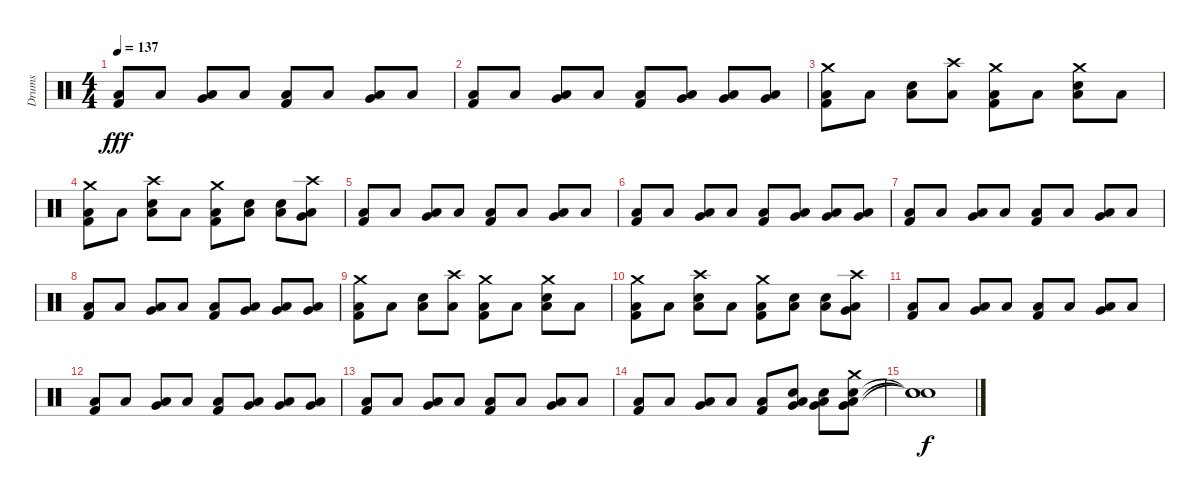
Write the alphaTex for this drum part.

\track ("Drums" "Drums") {instrument percussion}
\staff {score}
\articulation defaults
\ts (4 4)
\tempo 137
\clef neutral
\ks c
("Low Floor Tom (hit)" "Kick (hit) 2").8{dy fff} "Low Floor Tom (hit)".8 ("Very Low Tom (hit)" "Low Floor Tom (hit)").8 "Low Floor Tom (hit)".8 ("Low Floor Tom (hit)" "Kick (hit) 2").8 "Low Floor Tom (hit)".8 ("Very Low Tom (hit)" "Low Floor Tom (hit)").8 "Low Floor Tom (hit)".8 |
("Low Floor Tom (hit)" "Kick (hit) 2").8 "Low Floor Tom (hit)".8 ("Very Low Tom (hit)" "Low Floor Tom (hit)").8 "Low Floor Tom (hit)".8 ("Low Floor Tom (hit)" "Kick (hit) 2").8 ("Very Low Tom (hit)" "Low Floor Tom (hit)").8 ("Very Low Tom (hit)" "Low Floor Tom (hit)").8 ("Very Low Tom (hit)" "Low Floor Tom (hit)").8 |
("Crash medium (hit)" "Low Floor Tom (hit)" "Kick (hit) 2").8 "Low Floor Tom (hit)".8 ("Electric Snare (hit)" "Low Floor Tom (hit)").8 ("Low Floor Tom (hit)" "Crash high (hit)").8 ("Crash medium (hit)" "Low Floor Tom (hit)" "Kick (hit) 2").8 "Low Floor Tom (hit)".8 ("Electric Snare (hit)" "Low Floor Tom (hit)" "Crash medium (hit)").8 "Low Floor Tom (hit)".8 |
("Crash medium (hit)" "Low Floor Tom (hit)" "Kick (hit) 2").8 "Low Floor Tom (hit)".8 ("Electric Snare (hit)" "Low Floor Tom (hit)" "Crash high (hit)").8 "Low Floor Tom (hit)".8 ("Crash medium (hit)" "Low Floor Tom (hit)" "Kick (hit) 2").8 ("Electric Snare (hit)" "Low Floor Tom (hit)").8 ("Electric Snare (hit)" "Low Floor Tom (hit)").8 ("Very Low Tom (hit)" "Low Floor Tom (hit)" "Crash high (hit)").8 |
("Low Floor Tom (hit)" "Kick (hit) 2").8 "Low Floor Tom (hit)".8 ("Very Low Tom (hit)" "Low Floor Tom (hit)").8 "Low Floor Tom (hit)".8 ("Low Floor Tom (hit)" "Kick (hit) 2").8 "Low Floor Tom (hit)".8 ("Very Low Tom (hit)" "Low Floor Tom (hit)").8 "Low Floor Tom (hit)".8 |
("Low Floor Tom (hit)" "Kick (hit) 2").8 "Low Floor Tom (hit)".8 ("Very Low Tom (hit)" "Low Floor Tom (hit)").8 "Low Floor Tom (hit)".8 ("Low Floor Tom (hit)" "Kick (hit) 2").8 ("Very Low Tom (hit)" "Low Floor Tom (hit)").8 ("Very Low Tom (hit)" "Low Floor Tom (hit)").8 ("Very Low Tom (hit)" "Low Floor Tom (hit)").8 |
("Low Floor Tom (hit)" "Kick (hit) 2").8 "Low Floor Tom (hit)".8 ("Very Low Tom (hit)" "Low Floor Tom (hit)").8 "Low Floor Tom (hit)".8 ("Low Floor Tom (hit)" "Kick (hit) 2").8 "Low Floor Tom (hit)".8 ("Very Low Tom (hit)" "Low Floor Tom (hit)").8 "Low Floor Tom (hit)".8 |
("Low Floor Tom (hit)" "Kick (hit) 2").8 "Low Floor Tom (hit)".8 ("Very Low Tom (hit)" "Low Floor Tom (hit)").8 "Low Floor Tom (hit)".8 ("Low Floor Tom (hit)" "Kick (hit) 2").8 ("Very Low Tom (hit)" "Low Floor Tom (hit)").8 ("Very Low Tom (hit)" "Low Floor Tom (hit)").8 ("Very Low Tom (hit)" "Low Floor Tom (hit)").8 |
("Crash medium (hit)" "Low Floor Tom (hit)" "Kick (hit) 2").8 "Low Floor Tom (hit)".8 ("Electric Snare (hit)" "Low Floor Tom (hit)").8 ("Low Floor Tom (hit)" "Crash high (hit)").8 ("Crash medium (hit)" "Low Floor Tom (hit)" "Kick (hit) 2").8 "Low Floor Tom (hit)".8 ("Electric Snare (hit)" "Low Floor Tom (hit)" "Crash medium (hit)").8 "Low Floor Tom (hit)".8 |
("Crash medium (hit)" "Low Floor Tom (hit)" "Kick (hit) 2").8 "Low Floor Tom (hit)".8 ("Electric Snare (hit)" "Low Floor Tom (hit)" "Crash high (hit)").8 "Low Floor Tom (hit)".8 ("Crash medium (hit)" "Low Floor Tom (hit)" "Kick (hit) 2").8 ("Electric Snare (hit)" "Low Floor Tom (hit)").8 ("Electric Snare (hit)" "Low Floor Tom (hit)").8 ("Very Low Tom (hit)" "Low Floor Tom (hit)" "Crash high (hit)").8 |
("Low Floor Tom (hit)" "Kick (hit) 2").8 "Low Floor Tom (hit)".8 ("Very Low Tom (hit)" "Low Floor Tom (hit)").8 "Low Floor Tom (hit)".8 ("Low Floor Tom (hit)" "Kick (hit) 2").8 "Low Floor Tom (hit)".8 ("Very Low Tom (hit)" "Low Floor Tom (hit)").8 "Low Floor Tom (hit)".8 |
("Low Floor Tom (hit)" "Kick (hit) 2").8 "Low Floor Tom (hit)".8 ("Very Low Tom (hit)" "Low Floor Tom (hit)").8 "Low Floor Tom (hit)".8 ("Low Floor Tom (hit)" "Kick (hit) 2").8 ("Very Low Tom (hit)" "Low Floor Tom (hit)").8 ("Very Low Tom (hit)" "Low Floor Tom (hit)").8 ("Very Low Tom (hit)" "Low Floor Tom (hit)").8 |
("Low Floor Tom (hit)" "Kick (hit) 2").8 "Low Floor Tom (hit)".8 ("Very Low Tom (hit)" "Low Floor Tom (hit)").8 "Low Floor Tom (hit)".8 ("Low Floor Tom (hit)" "Kick (hit) 2").8 "Low Floor Tom (hit)".8 ("Very Low Tom (hit)" "Low Floor Tom (hit)").8 "Low Floor Tom (hit)".8 |
("Low Floor Tom (hit)" "Kick (hit) 2").8 "Low Floor Tom (hit)".8 ("Very Low Tom (hit)" "Low Floor Tom (hit)").8 "Low Floor Tom (hit)".8 ("Low Floor Tom (hit)" "Kick (hit) 2").8 ("Very Low Tom (hit)" "Low Floor Tom (hit)" "Electric Snare (hit)").8 ("Very Low Tom (hit)" "Low Floor Tom (hit)" "Electric Snare (hit)").8 ("Very Low Tom (hit)" "Low Floor Tom (hit)" "Electric Snare (hit)" "Crash medium (hit)").8 |
("Snare (hit)"{t} "Snare (hit)"{t} "Snare (hit)"{t}).1{dy f}
